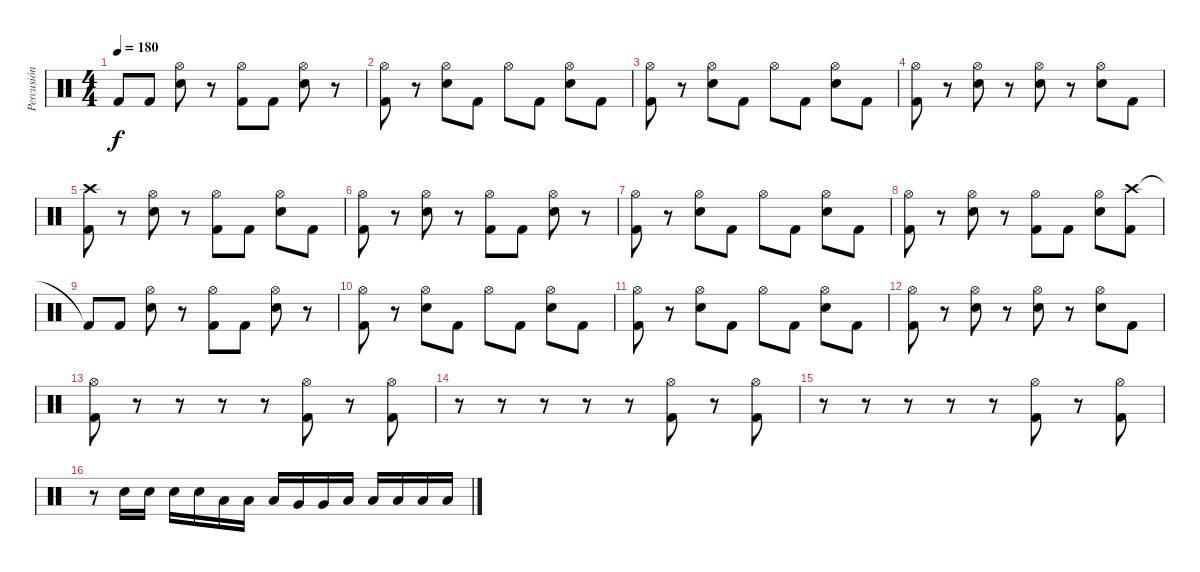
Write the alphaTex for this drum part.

\track ("Percusión" "Percusión") {instrument percussion}
\staff {score}
\articulation defaults
\ts (4 4)
\tempo 180
\clef neutral
\ks c "Kick (hit) 2"{t}.8{dy f} "Kick (hit) 2".8
("Hi-Hat (open)" "Electric Snare (hit)").8 r.8 ("Hi-Hat (open)" "Kick (hit) 2").8 "Kick (hit) 2".8 ("Hi-Hat (open)" "Electric Snare (hit)").8 r.8 |
("Hi-Hat (open)" "Kick (hit) 2").8 r.8 ("Hi-Hat (open)" "Electric Snare (hit)").8 "Kick (hit) 2".8 "Hi-Hat (open)".8 "Kick (hit) 2".8 ("Hi-Hat (open)" "Electric Snare (hit)").8 "Kick (hit) 2".8 |
("Hi-Hat (open)" "Kick (hit) 2").8 r.8 ("Hi-Hat (open)" "Electric Snare (hit)").8 "Kick (hit) 2".8 "Hi-Hat (open)".8 "Kick (hit) 2".8 ("Hi-Hat (open)" "Electric Snare (hit)").8 "Kick (hit) 2".8 |
("Hi-Hat (open)" "Kick (hit) 2").8 r.8 ("Hi-Hat (open)" "Electric Snare (hit)").8 r.8 ("Hi-Hat (open)" "Electric Snare (hit)").8 r.8 ("Hi-Hat (open)" "Electric Snare (hit)").8 "Kick (hit) 2".8 |
("Crash high (hit)" "Kick (hit) 2").8 r.8 ("Hi-Hat (open)" "Electric Snare (hit)").8 r.8 ("Hi-Hat (open)" "Kick (hit) 2").8 "Kick (hit) 2".8 ("Hi-Hat (open)" "Electric Snare (hit)").8 "Kick (hit) 2".8 |
("Hi-Hat (open)" "Kick (hit) 2").8 r.8 ("Hi-Hat (open)" "Electric Snare (hit)").8 r.8 ("Hi-Hat (open)" "Kick (hit) 2").8 "Kick (hit) 2".8 ("Hi-Hat (open)" "Electric Snare (hit)").8 r.8 |
("Hi-Hat (open)" "Kick (hit) 2").8 r.8 ("Hi-Hat (open)" "Electric Snare (hit)").8 "Kick (hit) 2".8 "Hi-Hat (open)".8 "Kick (hit) 2".8 ("Hi-Hat (open)" "Electric Snare (hit)").8 "Kick (hit) 2".8 |
("Hi-Hat (open)" "Kick (hit) 2").8 r.8 ("Hi-Hat (open)" "Electric Snare (hit)").8 r.8 ("Hi-Hat (open)" "Kick (hit) 2").8 "Kick (hit) 2".8 ("Hi-Hat (open)" "Electric Snare (hit)").8 ("Crash high (hit)" "Kick (hit) 2").8 |
"Kick (hit) 2"{t}.8 "Kick (hit) 2".8 ("Hi-Hat (open)" "Electric Snare (hit)").8 r.8 ("Hi-Hat (open)" "Kick (hit) 2").8 "Kick (hit) 2".8 ("Hi-Hat (open)" "Electric Snare (hit)").8 r.8 |
("Hi-Hat (open)" "Kick (hit) 2").8 r.8 ("Hi-Hat (open)" "Electric Snare (hit)").8 "Kick (hit) 2".8 "Hi-Hat (open)".8 "Kick (hit) 2".8 ("Hi-Hat (open)" "Electric Snare (hit)").8 "Kick (hit) 2".8 |
("Hi-Hat (open)" "Kick (hit) 2").8 r.8 ("Hi-Hat (open)" "Electric Snare (hit)").8 "Kick (hit) 2".8 "Hi-Hat (open)".8 "Kick (hit) 2".8 ("Hi-Hat (open)" "Electric Snare (hit)").8 "Kick (hit) 2".8 |
("Hi-Hat (open)" "Kick (hit) 2").8 r.8 ("Hi-Hat (open)" "Electric Snare (hit)").8 r.8 ("Hi-Hat (open)" "Electric Snare (hit)").8 r.8 ("Hi-Hat (open)" "Electric Snare (hit)").8 "Kick (hit) 2".8 |
("Hi-Hat (open)" "Kick (hit) 2").8 r.8 r.8 r.8 r.8 ("Hi-Hat (open)" "Kick (hit) 2").8 r.8 ("Hi-Hat (open)" "Kick (hit) 2").8 |
r.8 r.8 r.8 r.8 r.8 ("Hi-Hat (open)" "Kick (hit) 2").8 r.8 ("Hi-Hat (open)" "Kick (hit) 2").8 |
r.8 r.8 r.8 r.8 r.8 ("Hi-Hat (open)" "Kick (hit) 2").8 r.8 ("Hi-Hat (open)" "Kick (hit) 2").8 |
r.8 "Electric Snare (hit)".16 "Electric Snare (hit)".16 "Electric Snare (hit)".16 "Electric Snare (hit)".16 "Low Tom (hit)".16 "Low Tom (hit)".16 "Low Tom (hit)".16 "Very Low Tom (hit)".16 "Very Low Tom (hit)".16 "Low Floor Tom (hit)".16 "Low Floor Tom (hit)".16 "Low Floor Tom (hit)".16 "Low Floor Tom (hit)".16 "Low Floor Tom (hit)".16
